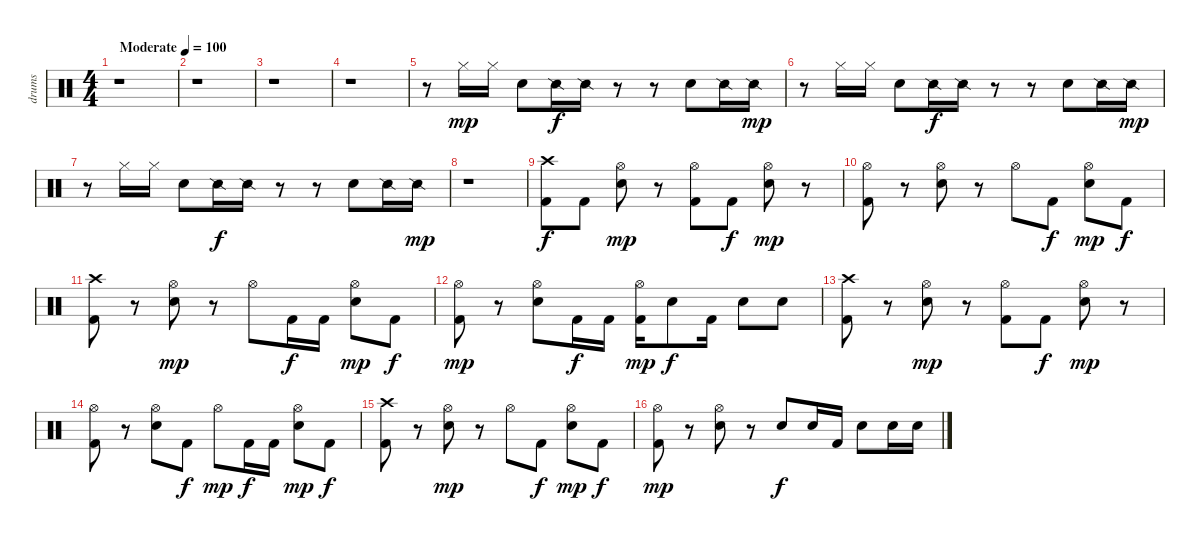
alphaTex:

\track ("drums" "drums") {instrument percussion}
\staff {score}
\articulation defaults
\ts (4 4)
\tempo (100 "Moderate")
\clef neutral
\ks c
r.1{dy mp} |
r.1 |
r.1 |
r.1 |
r.8 "Hi-Hat (closed)".16 "Hi-Hat (closed)".16 "Hand Clap (hit)".8 "Snare (side stick) 2".16{dy f} "Snare (side stick) 2".16 r.8 r.8 "Hand Clap (hit)".8 "Snare (side stick) 2".16 "Snare (side stick) 2".16{dy mp} |
r.8 "Hi-Hat (closed)".16 "Hi-Hat (closed)".16 "Hand Clap (hit)".8 "Snare (side stick) 2".16{dy f} "Snare (side stick) 2".16 r.8 r.8 "Hand Clap (hit)".8 "Snare (side stick) 2".16 "Snare (side stick) 2".16{dy mp} |
r.8 "Hi-Hat (closed)".16 "Hi-Hat (closed)".16 "Hand Clap (hit)".8 "Snare (side stick) 2".16{dy f} "Snare (side stick) 2".16 r.8 r.8 "Hand Clap (hit)".8 "Snare (side stick) 2".16 "Snare (side stick) 2".16{dy mp} |
r.1 |
("Crash high (hit)" "Kick (hit) 2").8{dy f} "Kick (hit) 2".8 ("Electric Snare (hit)" "Hi-Hat (open)").8{dy mp} r.8 ("Hi-Hat (open)" "Kick (hit) 2").8 "Kick (hit) 2".8{dy f} ("Electric Snare (hit)" "Hi-Hat (open)").8{dy mp} r.8 |
("Hi-Hat (open)" "Kick (hit) 2").8 r.8 ("Electric Snare (hit)" "Hi-Hat (open)").8 r.8 "Hi-Hat (open)".8 "Kick (hit) 2".8{dy f} ("Electric Snare (hit)" "Hi-Hat (open)").8{dy mp} "Kick (hit) 2".8{dy f} |
("Crash high (hit)" "Kick (hit) 2").8 r.8 ("Electric Snare (hit)" "Hi-Hat (open)").8{dy mp} r.8 "Hi-Hat (open)".8 "Kick (hit) 2".16{dy f} "Kick (hit) 2".16 ("Electric Snare (hit)" "Hi-Hat (open)").8{dy mp} "Kick (hit) 2".8{dy f} |
("Hi-Hat (open)" "Kick (hit) 2").8{dy mp} r.8 ("Electric Snare (hit)" "Hi-Hat (open)").8 "Kick (hit) 2".16{dy f} "Kick (hit) 2".16 ("Hi-Hat (open)" "Kick (hit) 2").16{dy mp} "Electric Snare (hit)".8{dy f} "Kick (hit) 2".16 "Electric Snare (hit)".8 "Electric Snare (hit)".8 |
("Crash high (hit)" "Kick (hit) 2").8 r.8 ("Electric Snare (hit)" "Hi-Hat (open)").8{dy mp} r.8 ("Hi-Hat (open)" "Kick (hit) 2").8 "Kick (hit) 2".8{dy f} ("Electric Snare (hit)" "Hi-Hat (open)").8{dy mp} r.8 |
("Hi-Hat (open)" "Kick (hit) 2").8 r.8 ("Electric Snare (hit)" "Hi-Hat (open)").8 "Kick (hit) 2".8{dy f} "Hi-Hat (open)".8{dy mp} "Kick (hit) 2".16{dy f} "Kick (hit) 2".16 ("Electric Snare (hit)" "Hi-Hat (open)").8{dy mp} "Kick (hit) 2".8{dy f} |
("Crash high (hit)" "Kick (hit) 2").8 r.8 ("Electric Snare (hit)" "Hi-Hat (open)").8{dy mp} r.8 "Hi-Hat (open)".8 "Kick (hit) 2".8{dy f} ("Electric Snare (hit)" "Hi-Hat (open)").8{dy mp} "Kick (hit) 2".8{dy f} |
("Hi-Hat (open)" "Kick (hit) 2").8{dy mp} r.8 ("Electric Snare (hit)" "Hi-Hat (open)").8 r.8 "Electric Snare (hit)".8{dy f} "Electric Snare (hit)".16 "Kick (hit) 2".16 "Electric Snare (hit)".8 "Electric Snare (hit)".16 "Electric Snare (hit)".16
